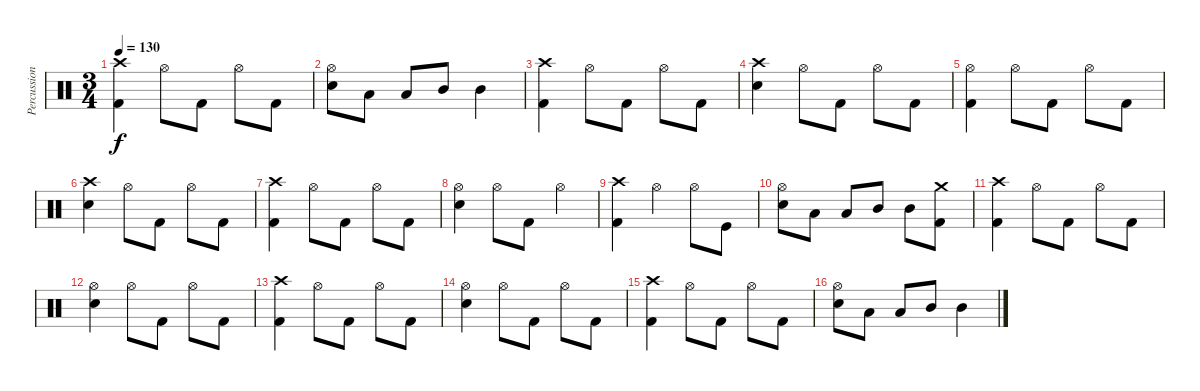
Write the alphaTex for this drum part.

\track ("Percussion" "Percussion") {instrument percussion}
\staff {score}
\articulation defaults
\ts (3 4)
\tempo 130
\clef neutral
\ks c
("Crash high (hit)" "Kick (hit) 2").4{dy f} "Hi-Hat (open)".8 "Kick (hit) 2".8 "Hi-Hat (open)".8 "Kick (hit) 2".8 |
("Hi-Hat (open)" "Snare (hit) 2").8 "Low Tom (hit)".8 "Low Tom (hit)".8 "Mid Tom (hit)".8 "Mid Tom (hit)".4 |
("Crash high (hit)" "Kick (hit) 2").4 "Hi-Hat (open)".8 "Kick (hit) 2".8 "Hi-Hat (open)".8 "Kick (hit) 2".8 |
("Crash high (hit)" "Snare (hit) 2").4 "Hi-Hat (open)".8 "Kick (hit) 2".8 "Hi-Hat (open)".8 "Kick (hit) 2".8 |
("Hi-Hat (open)" "Kick (hit) 2").4 "Hi-Hat (open)".8 "Kick (hit) 2".8 "Hi-Hat (open)".8 "Kick (hit) 2".8 |
("Crash high (hit)" "Snare (hit) 2").4 "Hi-Hat (open)".8 "Kick (hit) 2".8 "Hi-Hat (open)".8 "Kick (hit) 2".8 |
("Crash high (hit)" "Kick (hit) 2").4 "Hi-Hat (open)".8 "Kick (hit) 2".8 "Hi-Hat (open)".8 "Kick (hit) 2".8 |
("Hi-Hat (open)" "Snare (hit) 2").4 "Hi-Hat (open)".8 "Kick (hit) 2".8 "Hi-Hat (open)".4 |
("Crash high (hit)" "Kick (hit) 2").4 "Hi-Hat (open)".4 "Hi-Hat (open)".8 "Kick (hit)".8 |
("Hi-Hat (open)" "Snare (hit) 2").8 "Low Tom (hit)".8 "Low Tom (hit)".8 "Mid Tom (hit)".8 "Mid Tom (hit)".8 ("Crash medium (hit)" "Kick (hit) 2").8 |
("Crash high (hit)" "Kick (hit) 2").4 "Hi-Hat (open)".8 "Kick (hit) 2".8 "Hi-Hat (open)".8 "Kick (hit) 2".8 |
("Hi-Hat (open)" "Snare (hit) 2").4 "Hi-Hat (open)".8 "Kick (hit) 2".8 "Hi-Hat (open)".8 "Kick (hit) 2".8 |
("Crash high (hit)" "Kick (hit) 2").4 "Hi-Hat (open)".8 "Kick (hit) 2".8 "Hi-Hat (open)".8 "Kick (hit) 2".8 |
("Hi-Hat (open)" "Snare (hit) 2").4 "Hi-Hat (open)".8 "Kick (hit) 2".8 "Hi-Hat (open)".8 "Kick (hit) 2".8 |
("Crash high (hit)" "Kick (hit) 2").4 "Hi-Hat (open)".8 "Kick (hit) 2".8 "Hi-Hat (open)".8 "Kick (hit) 2".8 |
("Hi-Hat (open)" "Snare (hit) 2").8 "Low Tom (hit)".8 "Low Tom (hit)".8 "Mid Tom (hit)".8 "Mid Tom (hit)".4
